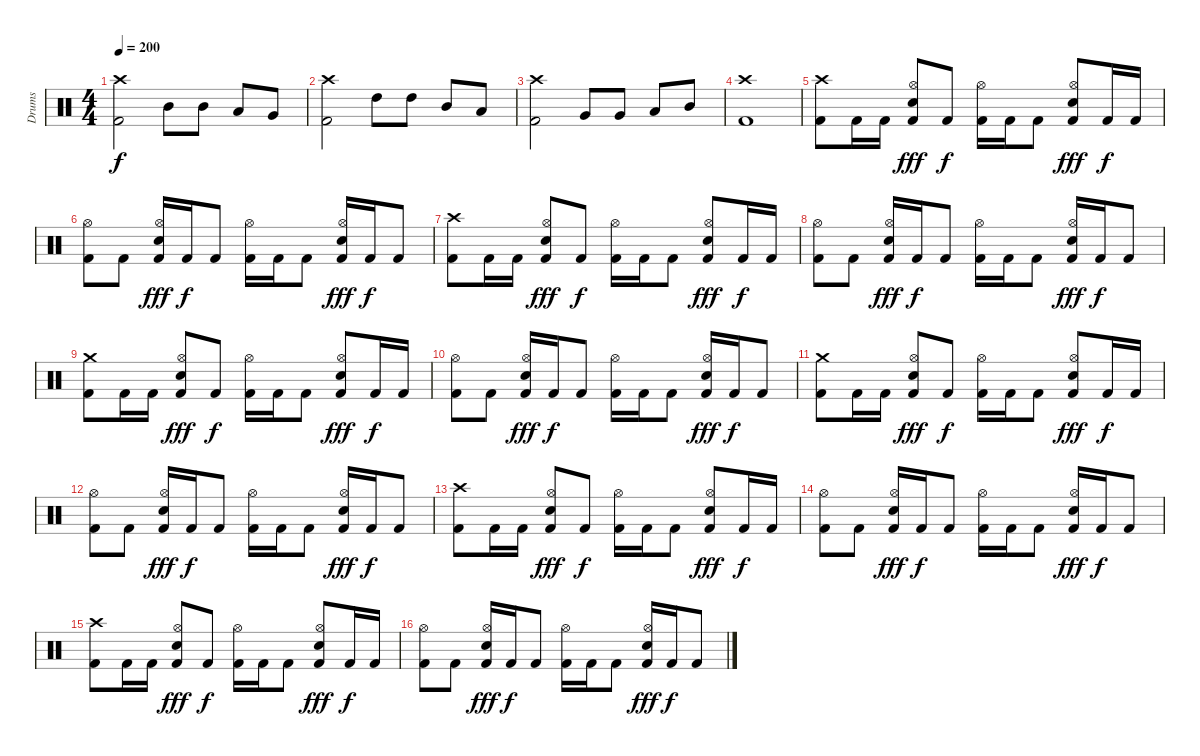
\track ("Drums" "Drums") {instrument percussion}
\staff {score}
\articulation defaults
\ts (4 4)
\tempo 200
\clef neutral
\ks c
("Crash high (hit)" "Kick (hit) 2").2{dy f} "Mid Tom (hit)".8 "Mid Tom (hit)".8 "Low Tom (hit)".8 "Very Low Tom (hit)".8 |
("Crash high (hit)" "Kick (hit) 2").2 "High Tom (hit)".8 "High Tom (hit)".8 "Mid Tom (hit)".8 "Low Tom (hit)".8 |
("Crash high (hit)" "Kick (hit) 2").2 "Very Low Tom (hit)".8 "Very Low Tom (hit)".8 "Low Tom (hit)".8 "Mid Tom (hit)".8 |
("Crash high (hit)" "Kick (hit) 2").1 |
("Crash high (hit)" "Kick (hit) 2").8 "Kick (hit) 2".16 "Kick (hit) 2".16 ("Hi-Hat (open)" "Snare (hit) 2" "Kick (hit) 2").8{dy fff} "Kick (hit) 2".8{dy f} ("Hi-Hat (open)" "Kick (hit) 2").16 "Kick (hit) 2".16 "Kick (hit) 2".8 ("Hi-Hat (open)" "Snare (hit) 2" "Kick (hit) 2").8{dy fff} "Kick (hit) 2".16{dy f} "Kick (hit) 2".16 |
("Hi-Hat (open)" "Kick (hit) 2").8 "Kick (hit) 2".8 ("Hi-Hat (open)" "Snare (hit) 2" "Kick (hit) 2").16{dy fff} "Kick (hit) 2".16{dy f} "Kick (hit) 2".8 ("Hi-Hat (open)" "Kick (hit) 2").16 "Kick (hit) 2".16 "Kick (hit) 2".8 ("Hi-Hat (open)" "Snare (hit) 2" "Kick (hit) 2").16{dy fff} "Kick (hit) 2".16{dy f} "Kick (hit) 2".8 |
("Crash high (hit)" "Kick (hit) 2").8 "Kick (hit) 2".16 "Kick (hit) 2".16 ("Hi-Hat (open)" "Snare (hit) 2" "Kick (hit) 2").8{dy fff} "Kick (hit) 2".8{dy f} ("Hi-Hat (open)" "Kick (hit) 2").16 "Kick (hit) 2".16 "Kick (hit) 2".8 ("Hi-Hat (open)" "Snare (hit) 2" "Kick (hit) 2").8{dy fff} "Kick (hit) 2".16{dy f} "Kick (hit) 2".16 |
("Hi-Hat (open)" "Kick (hit) 2").8 "Kick (hit) 2".8 ("Hi-Hat (open)" "Snare (hit) 2" "Kick (hit) 2").16{dy fff} "Kick (hit) 2".16{dy f} "Kick (hit) 2".8 ("Hi-Hat (open)" "Kick (hit) 2").16 "Kick (hit) 2".16 "Kick (hit) 2".8 ("Hi-Hat (open)" "Snare (hit) 2" "Kick (hit) 2").16{dy fff} "Kick (hit) 2".16{dy f} "Kick (hit) 2".8 |
("Crash medium (hit)" "Kick (hit) 2").8 "Kick (hit) 2".16 "Kick (hit) 2".16 ("Hi-Hat (open)" "Snare (hit) 2" "Kick (hit) 2").8{dy fff} "Kick (hit) 2".8{dy f} ("Hi-Hat (open)" "Kick (hit) 2").16 "Kick (hit) 2".16 "Kick (hit) 2".8 ("Hi-Hat (open)" "Snare (hit) 2" "Kick (hit) 2").8{dy fff} "Kick (hit) 2".16{dy f} "Kick (hit) 2".16 |
("Hi-Hat (open)" "Kick (hit) 2").8 "Kick (hit) 2".8 ("Hi-Hat (open)" "Snare (hit) 2" "Kick (hit) 2").16{dy fff} "Kick (hit) 2".16{dy f} "Kick (hit) 2".8 ("Hi-Hat (open)" "Kick (hit) 2").16 "Kick (hit) 2".16 "Kick (hit) 2".8 ("Hi-Hat (open)" "Snare (hit) 2" "Kick (hit) 2").16{dy fff} "Kick (hit) 2".16{dy f} "Kick (hit) 2".8 |
("Crash medium (hit)" "Kick (hit) 2").8 "Kick (hit) 2".16 "Kick (hit) 2".16 ("Hi-Hat (open)" "Snare (hit) 2" "Kick (hit) 2").8{dy fff} "Kick (hit) 2".8{dy f} ("Hi-Hat (open)" "Kick (hit) 2").16 "Kick (hit) 2".16 "Kick (hit) 2".8 ("Hi-Hat (open)" "Snare (hit) 2" "Kick (hit) 2").8{dy fff} "Kick (hit) 2".16{dy f} "Kick (hit) 2".16 |
("Hi-Hat (open)" "Kick (hit) 2").8 "Kick (hit) 2".8 ("Hi-Hat (open)" "Snare (hit) 2" "Kick (hit) 2").16{dy fff} "Kick (hit) 2".16{dy f} "Kick (hit) 2".8 ("Hi-Hat (open)" "Kick (hit) 2").16 "Kick (hit) 2".16 "Kick (hit) 2".8 ("Hi-Hat (open)" "Snare (hit) 2" "Kick (hit) 2").16{dy fff} "Kick (hit) 2".16{dy f} "Kick (hit) 2".8 |
("Crash high (hit)" "Kick (hit) 2").8 "Kick (hit) 2".16 "Kick (hit) 2".16 ("Hi-Hat (open)" "Snare (hit) 2" "Kick (hit) 2").8{dy fff} "Kick (hit) 2".8{dy f} ("Hi-Hat (open)" "Kick (hit) 2").16 "Kick (hit) 2".16 "Kick (hit) 2".8 ("Hi-Hat (open)" "Snare (hit) 2" "Kick (hit) 2").8{dy fff} "Kick (hit) 2".16{dy f} "Kick (hit) 2".16 |
("Hi-Hat (open)" "Kick (hit) 2").8 "Kick (hit) 2".8 ("Hi-Hat (open)" "Snare (hit) 2" "Kick (hit) 2").16{dy fff} "Kick (hit) 2".16{dy f} "Kick (hit) 2".8 ("Hi-Hat (open)" "Kick (hit) 2").16 "Kick (hit) 2".16 "Kick (hit) 2".8 ("Hi-Hat (open)" "Snare (hit) 2" "Kick (hit) 2").16{dy fff} "Kick (hit) 2".16{dy f} "Kick (hit) 2".8 |
("Crash high (hit)" "Kick (hit) 2").8 "Kick (hit) 2".16 "Kick (hit) 2".16 ("Hi-Hat (open)" "Snare (hit) 2" "Kick (hit) 2").8{dy fff} "Kick (hit) 2".8{dy f} ("Hi-Hat (open)" "Kick (hit) 2").16 "Kick (hit) 2".16 "Kick (hit) 2".8 ("Hi-Hat (open)" "Snare (hit) 2" "Kick (hit) 2").8{dy fff} "Kick (hit) 2".16{dy f} "Kick (hit) 2".16 |
("Hi-Hat (open)" "Kick (hit) 2").8 "Kick (hit) 2".8 ("Hi-Hat (open)" "Snare (hit) 2" "Kick (hit) 2").16{dy fff} "Kick (hit) 2".16{dy f} "Kick (hit) 2".8 ("Hi-Hat (open)" "Kick (hit) 2").16 "Kick (hit) 2".16 "Kick (hit) 2".8 ("Hi-Hat (open)" "Snare (hit) 2" "Kick (hit) 2").16{dy fff} "Kick (hit) 2".16{dy f} "Kick (hit) 2".8
